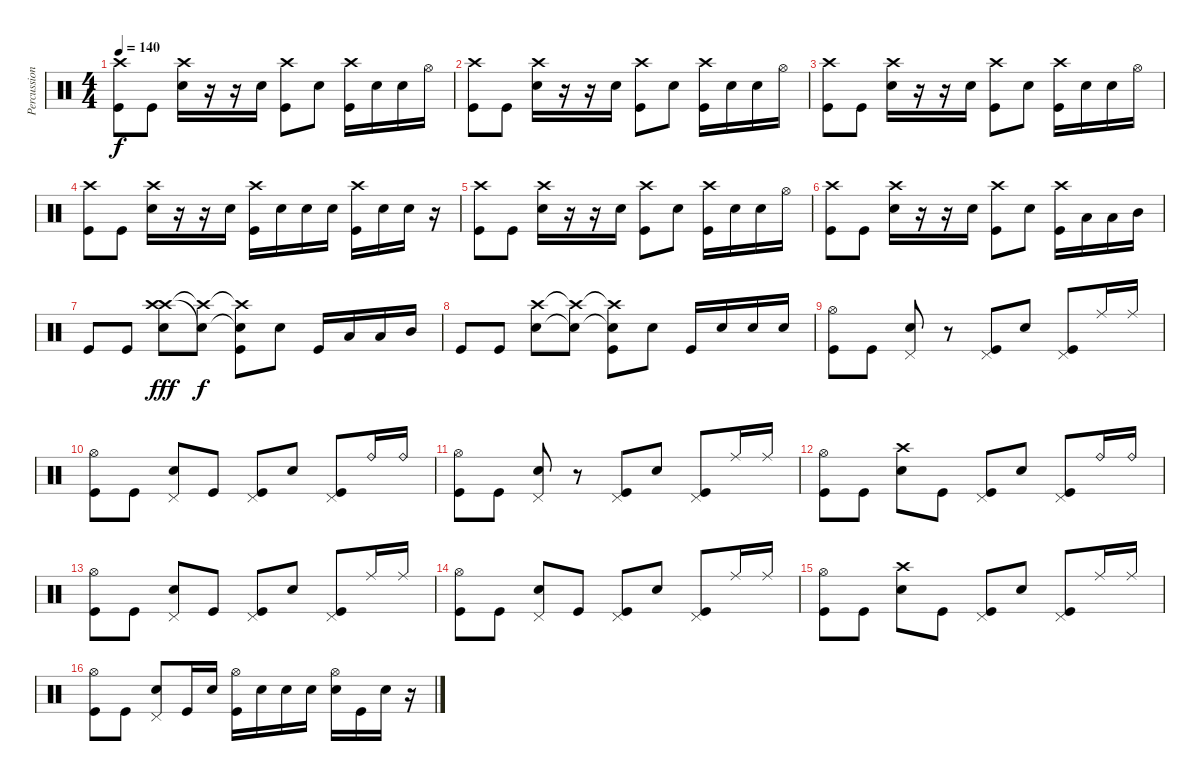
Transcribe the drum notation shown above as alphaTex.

\track ("Percussion" "Percussion") {instrument percussion}
\staff {score}
\articulation defaults
\ts (4 4)
\tempo 140
\clef neutral
\ks c
("Crash high (hit)" "Kick (hit)").8{dy f} "Kick (hit)".8 ("Crash high (hit)" "Snare (hit) 2").16 r.16 r.16 "Snare (hit) 2".16 ("Crash high (hit)" "Kick (hit)").8 "Snare (hit) 2".8 ("Crash high (hit)" "Kick (hit)").16 "Snare (hit) 2".16 "Snare (hit) 2".16 "Hi-Hat (open)".16 |
("Crash high (hit)" "Kick (hit)").8 "Kick (hit)".8 ("Crash high (hit)" "Snare (hit) 2").16 r.16 r.16 "Snare (hit) 2".16 ("Crash high (hit)" "Kick (hit)").8 "Snare (hit) 2".8 ("Crash high (hit)" "Kick (hit)").16 "Snare (hit) 2".16 "Snare (hit) 2".16 "Hi-Hat (open)".16 |
("Crash high (hit)" "Kick (hit)").8 "Kick (hit)".8 ("Crash high (hit)" "Snare (hit) 2").16 r.16 r.16 "Snare (hit) 2".16 ("Crash high (hit)" "Kick (hit)").8 "Snare (hit) 2".8 ("Crash high (hit)" "Kick (hit)").16 "Snare (hit) 2".16 "Snare (hit) 2".16 "Hi-Hat (open)".16 |
("Crash high (hit)" "Kick (hit)").8 "Kick (hit)".8 ("Crash high (hit)" "Snare (hit) 2").16 r.16 r.16 "Snare (hit) 2".16 ("Crash high (hit)" "Kick (hit)").16 "Snare (hit) 2".16 "Snare (hit) 2".16 "Snare (hit) 2".16 ("Crash high (hit)" "Kick (hit)").16 "Snare (hit) 2".16 "Snare (hit) 2".16 r.16 |
("Crash high (hit)" "Kick (hit)").8 "Kick (hit)".8 ("Crash high (hit)" "Snare (hit) 2").16 r.16 r.16 "Snare (hit) 2".16 ("Crash high (hit)" "Kick (hit)").8 "Snare (hit) 2".8 ("Crash high (hit)" "Kick (hit)").16 "Snare (hit) 2".16 "Snare (hit) 2".16 "Hi-Hat (open)".16 |
("Crash high (hit)" "Kick (hit)").8 "Kick (hit)".8 ("Crash high (hit)" "Snare (hit) 2").16 r.16 r.16 "Snare (hit) 2".16 ("Crash high (hit)" "Kick (hit)").8 "Snare (hit) 2".8 ("Crash high (hit)" "Kick (hit)").16 "Low Tom (hit)".16 "Low Tom (hit)".16 "Mid Tom (hit)".16 |
"Kick (hit)".8 "Kick (hit)".8 ("Crash high (hit)" "Crash high (hit)" "Snare (hit) 2").8{dy fff} ("Snare (hit)"{t} "Crash high (hit)"{t}).8{dy f} ("Snare (hit)"{t} "Crash high (hit)"{t} "Kick (hit)").8 "Snare (hit) 2".8 "Kick (hit)".16 "Low Tom (hit)".16 "Low Tom (hit)".16 "Mid Tom (hit)".16 |
"Kick (hit)".8 "Kick (hit)".8 ("Crash high (hit)" "Snare (hit) 2").8 ("Crash high (hit)"{t} "Snare (hit)"{t}).8 ("Crash high (hit)"{t} "Snare (hit) 2"{t} "Kick (hit)").8 "Snare (hit) 2".8 "Kick (hit)".16 "Snare (hit) 2".16 "Snare (hit) 2".16 "Snare (hit) 2".16 |
("Hi-Hat (open)" "Kick (hit)").8 "Kick (hit)".8 ("Pedal Hi-Hat (hit)" "Snare (hit) 2").8 r.8 ("Pedal Hi-Hat (hit)" "Kick (hit)").8 "Snare (hit) 2".8 ("Pedal Hi-Hat (hit)" "Kick (hit)").8 "Ride (middle)".16 "Ride (middle)".16 |
("Hi-Hat (open)" "Kick (hit)").8 "Kick (hit)".8 ("Pedal Hi-Hat (hit)" "Snare (hit) 2").8 "Kick (hit)".8 ("Pedal Hi-Hat (hit)" "Kick (hit)").8 "Snare (hit) 2".8 ("Pedal Hi-Hat (hit)" "Kick (hit)").8 "Ride (bell)".16 "Ride (bell)".16 |
("Hi-Hat (open)" "Kick (hit)").8 "Kick (hit)".8 ("Pedal Hi-Hat (hit)" "Snare (hit) 2").8 r.8 ("Pedal Hi-Hat (hit)" "Kick (hit)").8 "Snare (hit) 2".8 ("Pedal Hi-Hat (hit)" "Kick (hit)").8 "Ride (middle)".16 "Ride (middle)".16 |
("Hi-Hat (open)" "Kick (hit)").8 "Kick (hit)".8 ("Crash high (hit)" "Snare (hit) 2").8 "Kick (hit)".8 ("Pedal Hi-Hat (hit)" "Kick (hit)").8 "Snare (hit) 2".8 ("Pedal Hi-Hat (hit)" "Kick (hit)").8 "Ride (bell)".16 "Ride (bell)".16 |
("Hi-Hat (open)" "Kick (hit)").8 "Kick (hit)".8 ("Pedal Hi-Hat (hit)" "Snare (hit) 2").8 "Kick (hit)".8 ("Pedal Hi-Hat (hit)" "Kick (hit)").8 "Snare (hit) 2".8 ("Pedal Hi-Hat (hit)" "Kick (hit)").8 "Ride (middle)".16 "Ride (middle)".16 |
("Hi-Hat (open)" "Kick (hit)").8 "Kick (hit)".8 ("Pedal Hi-Hat (hit)" "Snare (hit) 2").8 "Kick (hit)".8 ("Pedal Hi-Hat (hit)" "Kick (hit)").8 "Snare (hit) 2".8 ("Pedal Hi-Hat (hit)" "Kick (hit)").8 "Ride (middle)".16 "Ride (middle)".16 |
("Hi-Hat (open)" "Kick (hit)").8 "Kick (hit)".8 ("Crash high (hit)" "Snare (hit) 2").8 "Kick (hit)".8 ("Pedal Hi-Hat (hit)" "Kick (hit)").8 "Snare (hit) 2".8 ("Pedal Hi-Hat (hit)" "Kick (hit)").8 "Ride (middle)".16 "Ride (middle)".16 |
("Hi-Hat (open)" "Kick (hit)").8 "Kick (hit)".8 ("Pedal Hi-Hat (hit)" "Snare (hit) 2").8 "Kick (hit)".16 "Snare (hit) 2".16 ("Hi-Hat (open)" "Kick (hit)").16 "Snare (hit) 2".16 "Snare (hit) 2".16 "Snare (hit) 2".16 ("Hi-Hat (open)" "Snare (hit) 2").16 "Kick (hit)".16 "Snare (hit) 2".16 r.16
